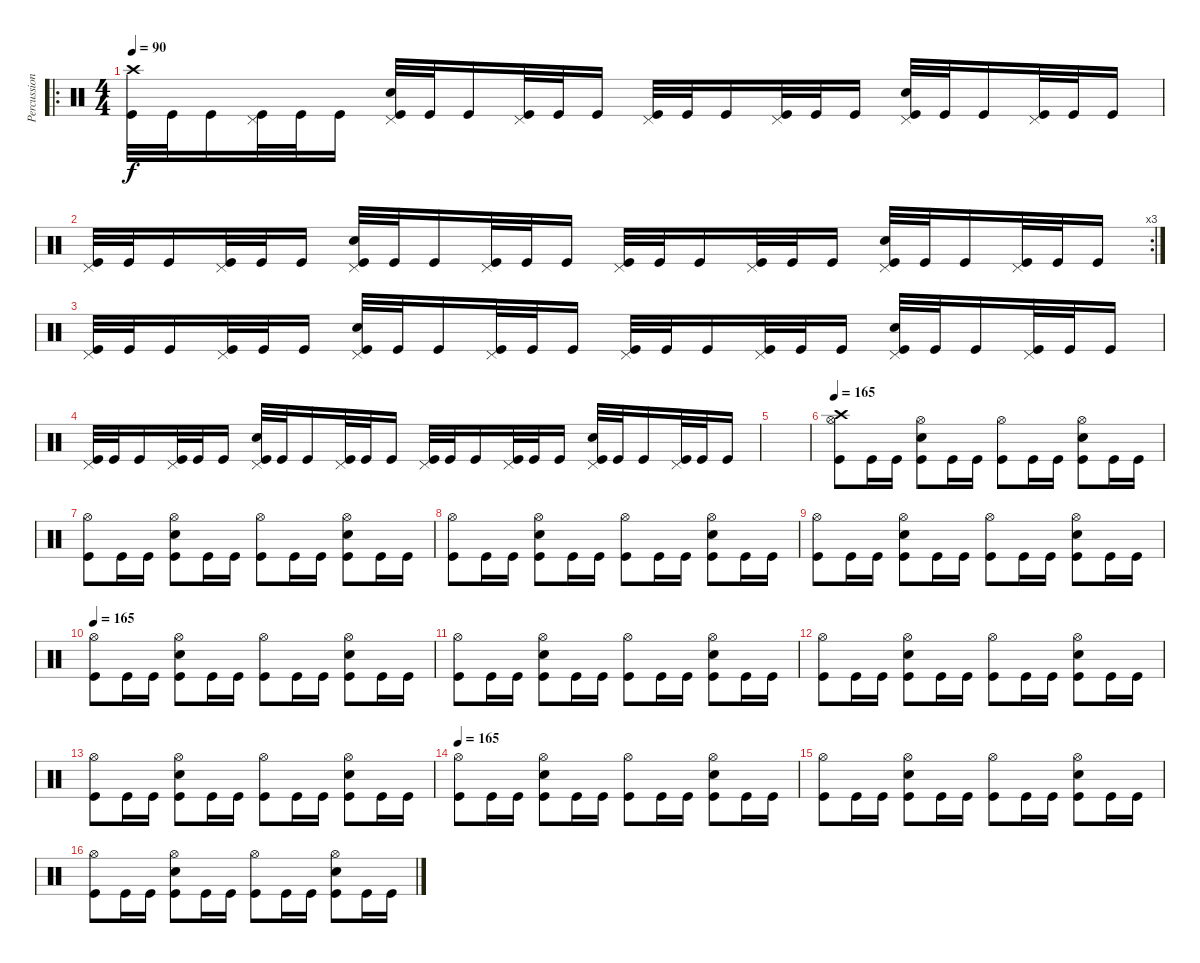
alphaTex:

\track ("Percussion" "Percussion") {instrument percussion}
\staff {score}
\articulation defaults
\ro
\ts (4 4)
\tempo 90
\clef neutral
\ks c
("Crash high (hit)" "Kick (hit)").32{dy f} "Kick (hit)".32 "Kick (hit)".16 ("Pedal Hi-Hat (hit)" "Kick (hit)").32 "Kick (hit)".32 "Kick (hit)".16 ("Pedal Hi-Hat (hit)" "Electric Snare (hit)" "Kick (hit)").32 "Kick (hit)".32 "Kick (hit)".16 ("Pedal Hi-Hat (hit)" "Kick (hit)").32 "Kick (hit)".32 "Kick (hit)".16 ("Pedal Hi-Hat (hit)" "Kick (hit)").32 "Kick (hit)".32 "Kick (hit)".16 ("Pedal Hi-Hat (hit)" "Kick (hit)").32 "Kick (hit)".32 "Kick (hit)".16 ("Pedal Hi-Hat (hit)" "Electric Snare (hit)" "Kick (hit)").32 "Kick (hit)".32 "Kick (hit)".16 ("Pedal Hi-Hat (hit)" "Kick (hit)").32 "Kick (hit)".32 "Kick (hit)".16 |
\rc 3
("Pedal Hi-Hat (hit)" "Kick (hit)").32 "Kick (hit)".32 "Kick (hit)".16 ("Pedal Hi-Hat (hit)" "Kick (hit)").32 "Kick (hit)".32 "Kick (hit)".16 ("Pedal Hi-Hat (hit)" "Electric Snare (hit)" "Kick (hit)").32 "Kick (hit)".32 "Kick (hit)".16 ("Pedal Hi-Hat (hit)" "Kick (hit)").32 "Kick (hit)".32 "Kick (hit)".16 ("Pedal Hi-Hat (hit)" "Kick (hit)").32 "Kick (hit)".32 "Kick (hit)".16 ("Pedal Hi-Hat (hit)" "Kick (hit)").32 "Kick (hit)".32 "Kick (hit)".16 ("Pedal Hi-Hat (hit)" "Electric Snare (hit)" "Kick (hit)").32 "Kick (hit)".32 "Kick (hit)".16 ("Pedal Hi-Hat (hit)" "Kick (hit)").32 "Kick (hit)".32 "Kick (hit)".16 |
("Pedal Hi-Hat (hit)" "Kick (hit)").32 "Kick (hit)".32 "Kick (hit)".16 ("Pedal Hi-Hat (hit)" "Kick (hit)").32 "Kick (hit)".32 "Kick (hit)".16 ("Pedal Hi-Hat (hit)" "Electric Snare (hit)" "Kick (hit)").32 "Kick (hit)".32 "Kick (hit)".16 ("Pedal Hi-Hat (hit)" "Kick (hit)").32 "Kick (hit)".32 "Kick (hit)".16 ("Pedal Hi-Hat (hit)" "Kick (hit)").32 "Kick (hit)".32 "Kick (hit)".16 ("Pedal Hi-Hat (hit)" "Kick (hit)").32 "Kick (hit)".32 "Kick (hit)".16 ("Pedal Hi-Hat (hit)" "Electric Snare (hit)" "Kick (hit)").32 "Kick (hit)".32 "Kick (hit)".16 ("Pedal Hi-Hat (hit)" "Kick (hit)").32 "Kick (hit)".32 "Kick (hit)".16 |
("Pedal Hi-Hat (hit)" "Kick (hit)").32 "Kick (hit)".32 "Kick (hit)".16 ("Pedal Hi-Hat (hit)" "Kick (hit)").32 "Kick (hit)".32 "Kick (hit)".16 ("Pedal Hi-Hat (hit)" "Electric Snare (hit)" "Kick (hit)").32 "Kick (hit)".32 "Kick (hit)".16 ("Pedal Hi-Hat (hit)" "Kick (hit)").32 "Kick (hit)".32 "Kick (hit)".16 ("Pedal Hi-Hat (hit)" "Kick (hit)").32 "Kick (hit)".32 "Kick (hit)".16 ("Pedal Hi-Hat (hit)" "Kick (hit)").32 "Kick (hit)".32 "Kick (hit)".16 ("Pedal Hi-Hat (hit)" "Electric Snare (hit)" "Kick (hit)").32 "Kick (hit)".32 "Kick (hit)".16 ("Pedal Hi-Hat (hit)" "Kick (hit)").32 "Kick (hit)".32 "Kick (hit)".16 |
|
\tempo 165
("Hi-Hat (open)" "Crash high (hit)" "Kick (hit)").8 "Kick (hit)".16 "Kick (hit)".16 ("Hi-Hat (open)" "Electric Snare (hit)" "Kick (hit)").8 "Kick (hit)".16 "Kick (hit)".16 ("Hi-Hat (open)" "Kick (hit)").8 "Kick (hit)".16 "Kick (hit)".16 ("Hi-Hat (open)" "Electric Snare (hit)" "Kick (hit)").8 "Kick (hit)".16 "Kick (hit)".16 |
("Hi-Hat (open)" "Kick (hit)").8 "Kick (hit)".16 "Kick (hit)".16 ("Hi-Hat (open)" "Electric Snare (hit)" "Kick (hit)").8 "Kick (hit)".16 "Kick (hit)".16 ("Hi-Hat (open)" "Kick (hit)").8 "Kick (hit)".16 "Kick (hit)".16 ("Hi-Hat (open)" "Electric Snare (hit)" "Kick (hit)").8 "Kick (hit)".16 "Kick (hit)".16 |
("Hi-Hat (open)" "Kick (hit)").8 "Kick (hit)".16 "Kick (hit)".16 ("Hi-Hat (open)" "Electric Snare (hit)" "Kick (hit)").8 "Kick (hit)".16 "Kick (hit)".16 ("Hi-Hat (open)" "Kick (hit)").8 "Kick (hit)".16 "Kick (hit)".16 ("Hi-Hat (open)" "Electric Snare (hit)" "Kick (hit)").8 "Kick (hit)".16 "Kick (hit)".16 |
("Hi-Hat (open)" "Kick (hit)").8 "Kick (hit)".16 "Kick (hit)".16 ("Hi-Hat (open)" "Electric Snare (hit)" "Kick (hit)").8 "Kick (hit)".16 "Kick (hit)".16 ("Hi-Hat (open)" "Kick (hit)").8 "Kick (hit)".16 "Kick (hit)".16 ("Hi-Hat (open)" "Electric Snare (hit)" "Kick (hit)").8 "Kick (hit)".16 "Kick (hit)".16 |
\tempo 165
("Hi-Hat (open)" "Kick (hit)").8 "Kick (hit)".16 "Kick (hit)".16 ("Hi-Hat (open)" "Electric Snare (hit)" "Kick (hit)").8 "Kick (hit)".16 "Kick (hit)".16 ("Hi-Hat (open)" "Kick (hit)").8 "Kick (hit)".16 "Kick (hit)".16 ("Hi-Hat (open)" "Electric Snare (hit)" "Kick (hit)").8 "Kick (hit)".16 "Kick (hit)".16 |
("Hi-Hat (open)" "Kick (hit)").8 "Kick (hit)".16 "Kick (hit)".16 ("Hi-Hat (open)" "Electric Snare (hit)" "Kick (hit)").8 "Kick (hit)".16 "Kick (hit)".16 ("Hi-Hat (open)" "Kick (hit)").8 "Kick (hit)".16 "Kick (hit)".16 ("Hi-Hat (open)" "Electric Snare (hit)" "Kick (hit)").8 "Kick (hit)".16 "Kick (hit)".16 |
("Hi-Hat (open)" "Kick (hit)").8 "Kick (hit)".16 "Kick (hit)".16 ("Hi-Hat (open)" "Electric Snare (hit)" "Kick (hit)").8 "Kick (hit)".16 "Kick (hit)".16 ("Hi-Hat (open)" "Kick (hit)").8 "Kick (hit)".16 "Kick (hit)".16 ("Hi-Hat (open)" "Electric Snare (hit)" "Kick (hit)").8 "Kick (hit)".16 "Kick (hit)".16 |
("Hi-Hat (open)" "Kick (hit)").8 "Kick (hit)".16 "Kick (hit)".16 ("Hi-Hat (open)" "Electric Snare (hit)" "Kick (hit)").8 "Kick (hit)".16 "Kick (hit)".16 ("Hi-Hat (open)" "Kick (hit)").8 "Kick (hit)".16 "Kick (hit)".16 ("Hi-Hat (open)" "Electric Snare (hit)" "Kick (hit)").8 "Kick (hit)".16 "Kick (hit)".16 |
\tempo 165
("Hi-Hat (open)" "Kick (hit)").8 "Kick (hit)".16 "Kick (hit)".16 ("Hi-Hat (open)" "Electric Snare (hit)" "Kick (hit)").8 "Kick (hit)".16 "Kick (hit)".16 ("Hi-Hat (open)" "Kick (hit)").8 "Kick (hit)".16 "Kick (hit)".16 ("Hi-Hat (open)" "Electric Snare (hit)" "Kick (hit)").8 "Kick (hit)".16 "Kick (hit)".16 |
("Hi-Hat (open)" "Kick (hit)").8 "Kick (hit)".16 "Kick (hit)".16 ("Hi-Hat (open)" "Electric Snare (hit)" "Kick (hit)").8 "Kick (hit)".16 "Kick (hit)".16 ("Hi-Hat (open)" "Kick (hit)").8 "Kick (hit)".16 "Kick (hit)".16 ("Hi-Hat (open)" "Electric Snare (hit)" "Kick (hit)").8 "Kick (hit)".16 "Kick (hit)".16 |
("Hi-Hat (open)" "Kick (hit)").8 "Kick (hit)".16 "Kick (hit)".16 ("Hi-Hat (open)" "Electric Snare (hit)" "Kick (hit)").8 "Kick (hit)".16 "Kick (hit)".16 ("Hi-Hat (open)" "Kick (hit)").8 "Kick (hit)".16 "Kick (hit)".16 ("Hi-Hat (open)" "Electric Snare (hit)" "Kick (hit)").8 "Kick (hit)".16 "Kick (hit)".16
